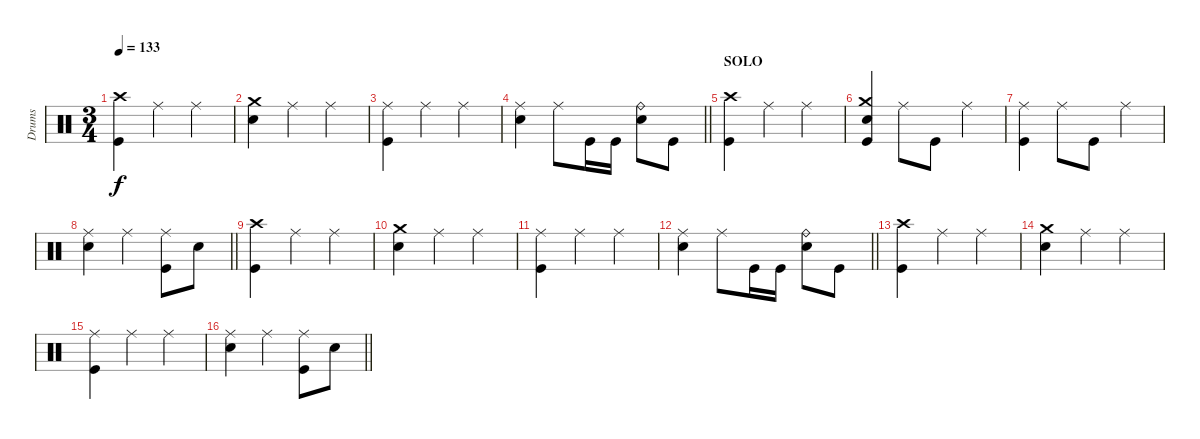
\track ("Drums" "Drums") {instrument percussion}
\staff
\articulation defaults
\ts (3 4)
\tempo 133
\clef neutral
\ks c
("Crash high (hit)" "Kick (hit)").4{dy f} "Ride (middle)".4 "Ride (middle)".4 |
("Crash medium (hit)" "Electric Snare (hit)").4 "Ride (middle)".4 "Ride (middle)".4 |
("Ride (middle)" "Kick (hit)").4 "Ride (middle)".4 "Ride (middle)".4 |
\barLineRight lightlight
("Ride (middle)" "Electric Snare (hit)").4 "Ride (middle)".8 "Kick (hit)".16 "Kick (hit)".16 ("Ride (bell)" "Electric Snare (hit)").8 "Kick (hit)".8 |
\section ("" "SOLO")
("Crash high (hit)" "Kick (hit)").4 "Ride (middle)".4 "Ride (middle)".4 |
("Crash medium (hit)" "Electric Snare (hit)" "Kick (hit)").4 "Ride (middle)".8 "Kick (hit)".8 "Ride (middle)".4 |
("Ride (middle)" "Kick (hit)").4 "Ride (middle)".8 "Kick (hit)".8 "Ride (middle)".4 |
\barLineRight lightlight
("Ride (middle)" "Electric Snare (hit)").4 "Ride (middle)".4 ("Ride (middle)" "Kick (hit)").8 "Electric Snare (hit)".8 |
("Crash high (hit)" "Kick (hit)").4 "Ride (middle)".4 "Ride (middle)".4 |
("Crash medium (hit)" "Electric Snare (hit)").4 "Ride (middle)".4 "Ride (middle)".4 |
("Ride (middle)" "Kick (hit)").4 "Ride (middle)".4 "Ride (middle)".4 |
\barLineRight lightlight
("Ride (middle)" "Electric Snare (hit)").4 "Ride (middle)".8 "Kick (hit)".16 "Kick (hit)".16 ("Ride (bell)" "Electric Snare (hit)").8 "Kick (hit)".8 |
("Crash high (hit)" "Kick (hit)").4 "Ride (middle)".4 "Ride (middle)".4 |
("Crash medium (hit)" "Electric Snare (hit)").4 "Ride (middle)".4 "Ride (middle)".4 |
("Ride (middle)" "Kick (hit)").4 "Ride (middle)".4 "Ride (middle)".4 |
\barLineRight lightlight
("Ride (middle)" "Electric Snare (hit)").4 "Ride (middle)".4 ("Ride (middle)" "Kick (hit)").8 "Electric Snare (hit)".8
